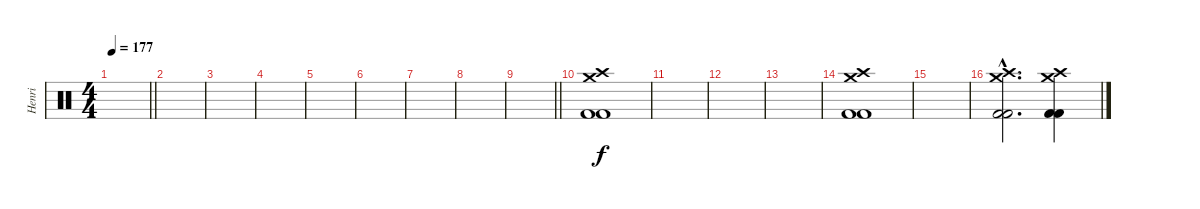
\track ("Henri" "Henri") {instrument percussion}
\staff {score}
\articulation defaults
\ts (4 4)
\tempo 177
\clef neutral
\barLineRight lightlight
\ks c
|
|
|
|
|
|
|
|
\barLineRight lightlight
|
("Crash high (hit)" "Crash medium (hit)" "Kick (hit) 2" "Kick (hit) 2").1 |
|
|
|
("Crash high (hit)" "Crash medium (hit)" "Kick (hit) 2" "Kick (hit) 2").1 |
|
("Crash high (hit)"{hac} "Crash medium (hit)"{hac} "Kick (hit) 2"{hac} "Kick (hit) 2"{hac}).2{d} ("Crash high (hit)" "Crash medium (hit)" "Kick (hit) 2" "Kick (hit) 2").4
